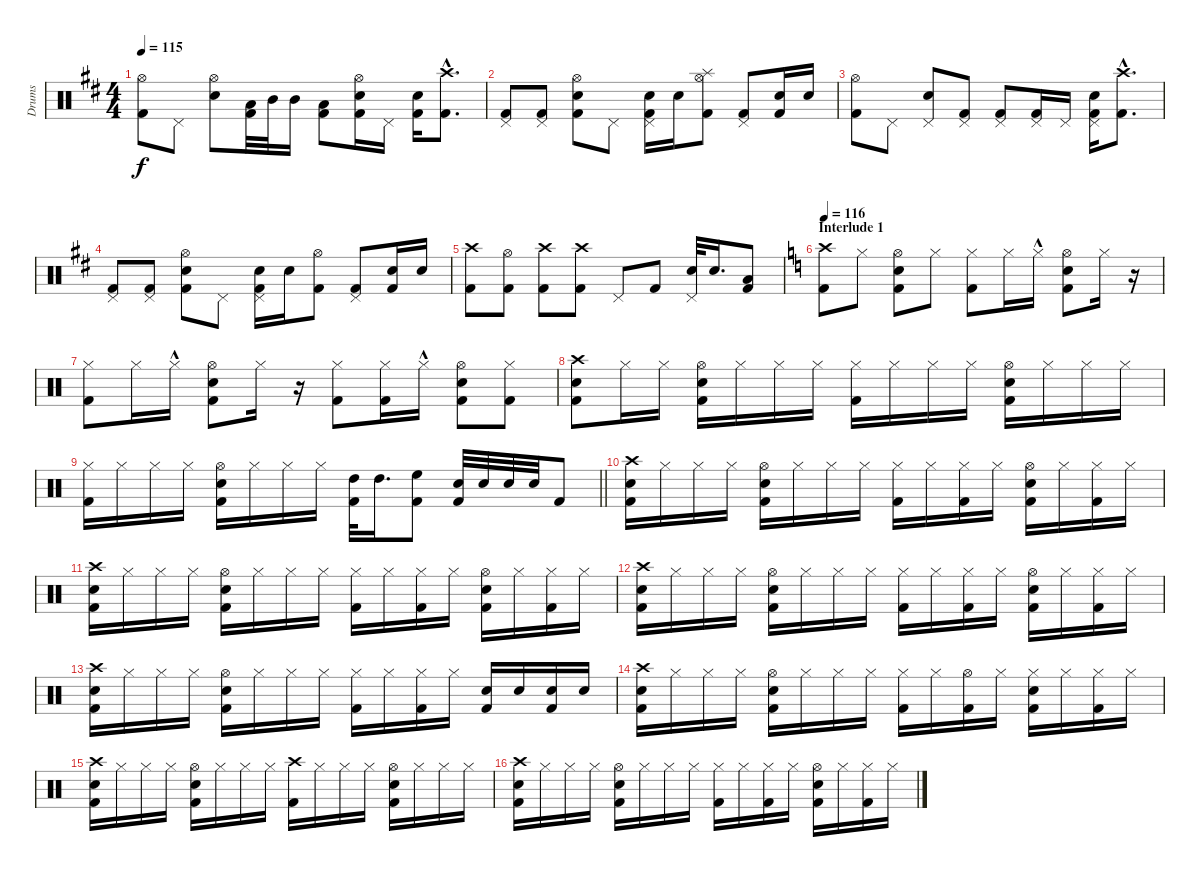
\track ("Drums" "Drums") {instrument percussion}
\staff {score}
\articulation defaults
\ts (4 4)
\tempo 115
\clef neutral
\ks d
("Hi-Hat (open)" "Kick (hit) 2").8{dy f} "Pedal Hi-Hat (hit)".8 ("Snare (hit) 2" "Hi-Hat (open)").8 ("Kick (hit) 2" "Low Tom (hit)").32 "Mid Tom (hit)".32 "Mid Tom (hit)".16 ("Kick (hit) 2" "Low Floor Tom (hit)").8 ("Snare (hit) 2" "Hi-Hat (open)" "Kick (hit) 2").16 "Pedal Hi-Hat (hit)".16 ("Kick (hit) 2" "Snare (hit) 2").16 ("Kick (hit) 2"{hac} "Crash high (hit)").8{d} |
("Pedal Hi-Hat (hit)" "Kick (hit) 2").8 ("Kick (hit) 2" "Pedal Hi-Hat (hit)").8 ("Snare (hit) 2" "Hi-Hat (open)" "Kick (hit) 2").8 "Pedal Hi-Hat (hit)".8 ("Kick (hit) 2" "Snare (hit) 2" "Pedal Hi-Hat (hit)").16 "Snare (hit) 2".16 ("Kick (hit) 2" "Splash (hit)" "Hi-Hat (open)").8 ("Kick (hit) 2" "Pedal Hi-Hat (hit)").8 ("Kick (hit) 2" "Snare (hit) 2").16 "Snare (hit) 2".16 |
("Hi-Hat (open)" "Kick (hit) 2").8 "Pedal Hi-Hat (hit)".8 ("Snare (hit) 2" "Pedal Hi-Hat (hit)").8 ("Kick (hit) 2" "Pedal Hi-Hat (hit)").8 ("Kick (hit) 2" "Pedal Hi-Hat (hit)").8 ("Pedal Hi-Hat (hit)" "Kick (hit) 2").16 "Pedal Hi-Hat (hit)".16 ("Pedal Hi-Hat (hit)" "Kick (hit) 2" "Snare (hit) 2").16 ("Kick (hit) 2"{hac} "Crash high (hit)").8{d} |
("Pedal Hi-Hat (hit)" "Kick (hit) 2").8 ("Kick (hit) 2" "Pedal Hi-Hat (hit)").8 ("Snare (hit) 2" "Hi-Hat (open)" "Kick (hit) 2").8 "Pedal Hi-Hat (hit)".8 ("Kick (hit) 2" "Snare (hit) 2" "Pedal Hi-Hat (hit)").16 "Snare (hit) 2".16 ("Kick (hit) 2" "Hi-Hat (open)").8 ("Kick (hit) 2" "Pedal Hi-Hat (hit)").8 ("Kick (hit) 2" "Snare (hit) 2").16 "Snare (hit) 2".16 |
("Crash high (hit)" "Kick (hit) 2").8 ("Kick (hit) 2" "Hi-Hat (open)").8 ("Kick (hit) 2" "Crash high (hit)").8 ("Kick (hit) 2" "Crash high (hit)").8 "Pedal Hi-Hat (hit)".8 "Kick (hit) 2".8 ("Pedal Hi-Hat (hit)" "Snare (hit) 2").32 "Snare (hit) 2".16{d} ("Low Floor Tom (hit)" "Kick (hit) 2").8 |
\section ("" "Interlude 1")
\tempo 116
\ks c
("Kick (hit) 2" "Crash high (hit)").8 "Hi-Hat (closed)".8 ("Kick (hit) 2" "Hi-Hat (open)" "Snare (hit) 2").8 "Hi-Hat (closed)".8 ("Kick (hit) 2" "Hi-Hat (closed)").8 "Hi-Hat (closed)".16 "Hi-Hat (closed)"{hac}.16 ("Kick (hit) 2" "Snare (hit) 2" "Hi-Hat (open)").8 "Hi-Hat (closed)".16 r.16 |
("Hi-Hat (closed)" "Kick (hit) 2").8 "Hi-Hat (closed)".16 "Hi-Hat (closed)"{hac}.16 ("Snare (hit) 2" "Kick (hit) 2" "Hi-Hat (open)").8 "Hi-Hat (closed)".16 r.16 ("Kick (hit) 2" "Hi-Hat (closed)").8 ("Kick (hit) 2" "Hi-Hat (closed)").16 "Hi-Hat (closed)"{hac}.16 ("Snare (hit) 2" "Kick (hit) 2" "Hi-Hat (open)").8 ("Kick (hit) 2" "Hi-Hat (closed)").8 |
("Kick (hit) 2" "Snare (hit) 2" "Crash high (hit)").8 "Hi-Hat (closed)".16 "Hi-Hat (closed)".16 ("Hi-Hat (open)" "Kick (hit) 2" "Snare (hit) 2").16 "Hi-Hat (closed)".16 "Hi-Hat (closed)".16 "Hi-Hat (closed)".16 ("Kick (hit) 2" "Hi-Hat (closed)").16 "Hi-Hat (closed)".16 "Hi-Hat (closed)".16 "Hi-Hat (closed)".16 ("Snare (hit) 2" "Kick (hit) 2" "Hi-Hat (open)").16 "Hi-Hat (closed)".16 "Hi-Hat (closed)".16 "Hi-Hat (closed)".16 |
\barLineRight lightlight
("Kick (hit) 2" "Hi-Hat (closed)").16 "Hi-Hat (closed)".16 "Hi-Hat (closed)".16 "Hi-Hat (closed)".16 ("Snare (hit) 2" "Hi-Hat (open)" "Kick (hit) 2").16 "Hi-Hat (closed)".16 "Hi-Hat (closed)".16 "Hi-Hat (closed)".16 ("High Tom (hit)" "Kick (hit) 2").32 "High Tom (hit)".16{d} ("High Floor Tom (hit)" "Kick (hit) 2").8 ("Snare (hit) 2" "Kick (hit) 2").32 "Snare (hit) 2".32 "Snare (hit) 2".32 "Snare (hit) 2".32 "Kick (hit) 2".8 |
("Kick (hit) 2" "Snare (hit) 2" "Crash high (hit)").16 "Hi-Hat (closed)".16 "Hi-Hat (closed)".16 "Hi-Hat (closed)".16 ("Hi-Hat (open)" "Kick (hit) 2" "Snare (hit) 2").16 "Hi-Hat (closed)".16 "Hi-Hat (closed)".16 "Hi-Hat (closed)".16 ("Kick (hit) 2" "Hi-Hat (closed)").16 "Hi-Hat (closed)".16 ("Kick (hit) 2" "Hi-Hat (closed)").16 "Hi-Hat (closed)".16 ("Snare (hit) 2" "Kick (hit) 2" "Hi-Hat (open)").16 "Hi-Hat (closed)".16 ("Hi-Hat (closed)" "Kick (hit) 2").16 "Hi-Hat (closed)".16 |
("Kick (hit) 2" "Snare (hit) 2" "Crash high (hit)").16 "Hi-Hat (closed)".16 "Hi-Hat (closed)".16 "Hi-Hat (closed)".16 ("Hi-Hat (open)" "Kick (hit) 2" "Snare (hit) 2").16 "Hi-Hat (closed)".16 "Hi-Hat (closed)".16 "Hi-Hat (closed)".16 ("Kick (hit) 2" "Hi-Hat (closed)").16 "Hi-Hat (closed)".16 ("Hi-Hat (closed)" "Kick (hit) 2").16 "Hi-Hat (closed)".16 ("Snare (hit) 2" "Kick (hit) 2" "Hi-Hat (open)").16 "Hi-Hat (closed)".16 ("Kick (hit) 2" "Hi-Hat (closed)").16 "Hi-Hat (closed)".16 |
("Kick (hit) 2" "Snare (hit) 2" "Crash high (hit)").16 "Hi-Hat (closed)".16 "Hi-Hat (closed)".16 "Hi-Hat (closed)".16 ("Hi-Hat (open)" "Kick (hit) 2" "Snare (hit) 2").16 "Hi-Hat (closed)".16 "Hi-Hat (closed)".16 "Hi-Hat (closed)".16 ("Kick (hit) 2" "Hi-Hat (closed)").16 "Hi-Hat (closed)".16 ("Kick (hit) 2" "Hi-Hat (closed)").16 "Hi-Hat (closed)".16 ("Snare (hit) 2" "Kick (hit) 2" "Hi-Hat (open)").16 "Hi-Hat (closed)".16 ("Kick (hit) 2" "Hi-Hat (closed)").16 "Hi-Hat (closed)".16 |
("Kick (hit) 2" "Snare (hit) 2" "Crash high (hit)").16 "Hi-Hat (closed)".16 "Hi-Hat (closed)".16 "Hi-Hat (closed)".16 ("Hi-Hat (open)" "Kick (hit) 2" "Snare (hit) 2").16 "Hi-Hat (closed)".16 "Hi-Hat (closed)".16 "Hi-Hat (closed)".16 ("Kick (hit) 2" "Hi-Hat (closed)").16 "Hi-Hat (closed)".16 ("Kick (hit) 2" "Hi-Hat (closed)").16 "Hi-Hat (closed)".16 ("Snare (hit) 2" "Kick (hit) 2").16 "Snare (hit) 2".16 ("Snare (hit) 2" "Kick (hit) 2").16 "Snare (hit) 2".16 |
("Kick (hit) 2" "Snare (hit) 2" "Crash high (hit)").16 "Hi-Hat (closed)".16 "Hi-Hat (closed)".16 "Hi-Hat (closed)".16 ("Hi-Hat (open)" "Kick (hit) 2" "Snare (hit) 2").16 "Hi-Hat (closed)".16 "Hi-Hat (closed)".16 "Hi-Hat (closed)".16 ("Kick (hit) 2" "Hi-Hat (closed)").16 "Hi-Hat (closed)".16 ("Kick (hit) 2" "Hi-Hat (open)").16 "Hi-Hat (closed)".16 ("Snare (hit) 2" "Kick (hit) 2" "Hi-Hat (closed)").16 "Hi-Hat (closed)".16 ("Kick (hit) 2" "Hi-Hat (closed)").16 "Hi-Hat (closed)".16 |
("Kick (hit) 2" "Snare (hit) 2" "Crash high (hit)").16 "Hi-Hat (closed)".16 "Hi-Hat (closed)".16 "Hi-Hat (closed)".16 ("Hi-Hat (open)" "Kick (hit) 2" "Snare (hit) 2").16 "Hi-Hat (closed)".16 "Hi-Hat (closed)".16 "Hi-Hat (closed)".16 ("Kick (hit) 2" "Crash high (hit)").16 "Hi-Hat (closed)".16 "Hi-Hat (closed)".16 "Hi-Hat (closed)".16 ("Snare (hit) 2" "Kick (hit) 2" "Hi-Hat (open)").16 "Hi-Hat (closed)".16 "Hi-Hat (closed)".16 "Hi-Hat (closed)".16 |
("Kick (hit) 2" "Snare (hit) 2" "Crash high (hit)").16 "Hi-Hat (closed)".16 "Hi-Hat (closed)".16 "Hi-Hat (closed)".16 ("Hi-Hat (open)" "Kick (hit) 2" "Snare (hit) 2").16 "Hi-Hat (closed)".16 "Hi-Hat (closed)".16 "Hi-Hat (closed)".16 ("Kick (hit) 2" "Hi-Hat (closed)").16 "Hi-Hat (closed)".16 ("Kick (hit) 2" "Hi-Hat (closed)").16 "Hi-Hat (closed)".16 ("Snare (hit) 2" "Kick (hit) 2" "Hi-Hat (open)").16 "Hi-Hat (closed)".16 ("Kick (hit) 2" "Hi-Hat (closed)").16 "Hi-Hat (closed)".16
